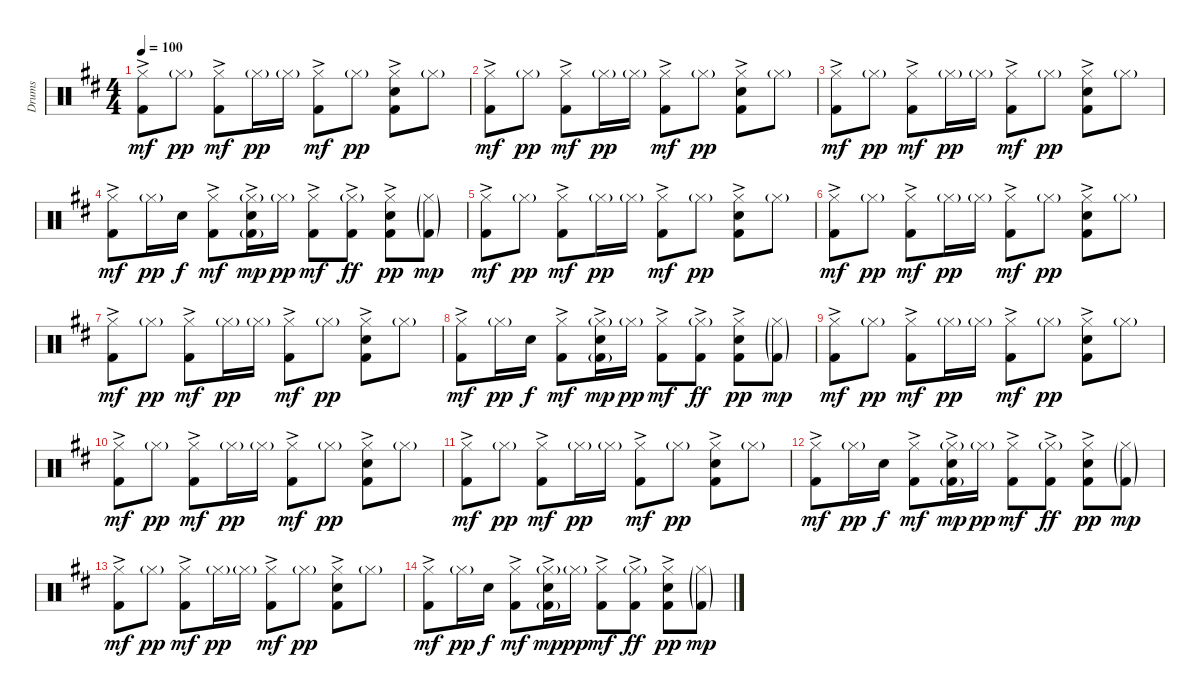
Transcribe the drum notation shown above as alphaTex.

\track ("Drums" "Drums") {instrument percussion}
\staff {score}
\articulation defaults
\ts (4 4)
\tempo 100
\clef neutral
\ks d
("Hi-Hat (closed)" "Kick (hit) 2"{ac}).8{dy mf} "Hi-Hat (closed)"{g}.8{dy pp} ("Hi-Hat (closed)"{ac} "Kick (hit) 2"{ac}).8{dy mf} "Hi-Hat (closed)"{g}.16{dy pp} "Hi-Hat (closed)"{g}.16 ("Hi-Hat (closed)" "Kick (hit) 2"{ac}).8{dy mf} "Hi-Hat (closed)"{g}.8{dy pp} ("Hi-Hat (closed)"{ac} "Snare (hit) 2"{ac} "Kick (hit) 2").8 "Hi-Hat (closed)"{g}.8 |
("Hi-Hat (closed)" "Kick (hit) 2"{ac}).8{dy mf} "Hi-Hat (closed)"{g}.8{dy pp} ("Hi-Hat (closed)"{ac} "Kick (hit) 2"{ac}).8{dy mf} "Hi-Hat (closed)"{g}.16{dy pp} "Hi-Hat (closed)"{g}.16 ("Hi-Hat (closed)" "Kick (hit) 2"{ac}).8{dy mf} "Hi-Hat (closed)"{g}.8{dy pp} ("Hi-Hat (closed)"{ac} "Snare (hit) 2"{ac} "Kick (hit) 2").8 "Hi-Hat (closed)"{g}.8 |
("Hi-Hat (closed)" "Kick (hit) 2"{ac}).8{dy mf} "Hi-Hat (closed)"{g}.8{dy pp} ("Hi-Hat (closed)"{ac} "Kick (hit) 2"{ac}).8{dy mf} "Hi-Hat (closed)"{g}.16{dy pp} "Hi-Hat (closed)"{g}.16 ("Hi-Hat (closed)" "Kick (hit) 2"{ac}).8{dy mf} "Hi-Hat (closed)"{g}.8{dy pp} ("Hi-Hat (closed)"{ac} "Snare (hit) 2"{ac} "Kick (hit) 2").8 "Hi-Hat (closed)"{g}.8 |
("Hi-Hat (closed)" "Kick (hit) 2"{ac}).8{dy mf} "Hi-Hat (closed)"{g}.16{dy pp} "Snare (hit) 2".16{dy f} ("Hi-Hat (closed)"{ac} "Kick (hit) 2"{ac}).8{dy mf} ("Hi-Hat (closed)"{g} "Snare (hit) 2"{ac} "Kick (hit) 2"{g}).16{dy mp} "Hi-Hat (closed)"{g}.16{dy pp} ("Hi-Hat (closed)" "Kick (hit) 2"{ac}).8{dy mf} ("Hi-Hat (closed)"{g} "Kick (hit) 2"{ac}).8{dy ff} ("Hi-Hat (closed)"{ac} "Snare (hit) 2"{ac} "Kick (hit) 2").8{dy pp} ("Hi-Hat (closed)"{g} "Kick (hit) 2"{g}).8{dy mp} |
("Hi-Hat (closed)" "Kick (hit) 2"{ac}).8{dy mf} "Hi-Hat (closed)"{g}.8{dy pp} ("Hi-Hat (closed)"{ac} "Kick (hit) 2"{ac}).8{dy mf} "Hi-Hat (closed)"{g}.16{dy pp} "Hi-Hat (closed)"{g}.16 ("Hi-Hat (closed)" "Kick (hit) 2"{ac}).8{dy mf} "Hi-Hat (closed)"{g}.8{dy pp} ("Hi-Hat (closed)"{ac} "Snare (hit) 2"{ac} "Kick (hit) 2").8 "Hi-Hat (closed)"{g}.8 |
("Hi-Hat (closed)" "Kick (hit) 2"{ac}).8{dy mf} "Hi-Hat (closed)"{g}.8{dy pp} ("Hi-Hat (closed)"{ac} "Kick (hit) 2"{ac}).8{dy mf} "Hi-Hat (closed)"{g}.16{dy pp} "Hi-Hat (closed)"{g}.16 ("Hi-Hat (closed)" "Kick (hit) 2"{ac}).8{dy mf} "Hi-Hat (closed)"{g}.8{dy pp} ("Hi-Hat (closed)"{ac} "Snare (hit) 2"{ac} "Kick (hit) 2").8 "Hi-Hat (closed)"{g}.8 |
("Hi-Hat (closed)" "Kick (hit) 2"{ac}).8{dy mf} "Hi-Hat (closed)"{g}.8{dy pp} ("Hi-Hat (closed)"{ac} "Kick (hit) 2"{ac}).8{dy mf} "Hi-Hat (closed)"{g}.16{dy pp} "Hi-Hat (closed)"{g}.16 ("Hi-Hat (closed)" "Kick (hit) 2"{ac}).8{dy mf} "Hi-Hat (closed)"{g}.8{dy pp} ("Hi-Hat (closed)"{ac} "Snare (hit) 2"{ac} "Kick (hit) 2").8 "Hi-Hat (closed)"{g}.8 |
("Hi-Hat (closed)" "Kick (hit) 2"{ac}).8{dy mf} "Hi-Hat (closed)"{g}.16{dy pp} "Snare (hit) 2".16{dy f} ("Hi-Hat (closed)"{ac} "Kick (hit) 2"{ac}).8{dy mf} ("Hi-Hat (closed)"{g} "Snare (hit) 2"{ac} "Kick (hit) 2"{g}).16{dy mp} "Hi-Hat (closed)"{g}.16{dy pp} ("Hi-Hat (closed)" "Kick (hit) 2"{ac}).8{dy mf} ("Hi-Hat (closed)"{g} "Kick (hit) 2"{ac}).8{dy ff} ("Hi-Hat (closed)"{ac} "Snare (hit) 2"{ac} "Kick (hit) 2").8{dy pp} ("Hi-Hat (closed)"{g} "Kick (hit) 2"{g}).8{dy mp} |
("Hi-Hat (closed)" "Kick (hit) 2"{ac}).8{dy mf} "Hi-Hat (closed)"{g}.8{dy pp} ("Hi-Hat (closed)"{ac} "Kick (hit) 2"{ac}).8{dy mf} "Hi-Hat (closed)"{g}.16{dy pp} "Hi-Hat (closed)"{g}.16 ("Hi-Hat (closed)" "Kick (hit) 2"{ac}).8{dy mf} "Hi-Hat (closed)"{g}.8{dy pp} ("Hi-Hat (closed)"{ac} "Snare (hit) 2"{ac} "Kick (hit) 2").8 "Hi-Hat (closed)"{g}.8 |
("Hi-Hat (closed)" "Kick (hit) 2"{ac}).8{dy mf} "Hi-Hat (closed)"{g}.8{dy pp} ("Hi-Hat (closed)"{ac} "Kick (hit) 2"{ac}).8{dy mf} "Hi-Hat (closed)"{g}.16{dy pp} "Hi-Hat (closed)"{g}.16 ("Hi-Hat (closed)" "Kick (hit) 2"{ac}).8{dy mf} "Hi-Hat (closed)"{g}.8{dy pp} ("Hi-Hat (closed)"{ac} "Snare (hit) 2"{ac} "Kick (hit) 2").8 "Hi-Hat (closed)"{g}.8 |
("Hi-Hat (closed)" "Kick (hit) 2"{ac}).8{dy mf} "Hi-Hat (closed)"{g}.8{dy pp} ("Hi-Hat (closed)"{ac} "Kick (hit) 2"{ac}).8{dy mf} "Hi-Hat (closed)"{g}.16{dy pp} "Hi-Hat (closed)"{g}.16 ("Hi-Hat (closed)" "Kick (hit) 2"{ac}).8{dy mf} "Hi-Hat (closed)"{g}.8{dy pp} ("Hi-Hat (closed)"{ac} "Snare (hit) 2"{ac} "Kick (hit) 2").8 "Hi-Hat (closed)"{g}.8 |
("Hi-Hat (closed)" "Kick (hit) 2"{ac}).8{dy mf} "Hi-Hat (closed)"{g}.16{dy pp} "Snare (hit) 2".16{dy f} ("Hi-Hat (closed)"{ac} "Kick (hit) 2"{ac}).8{dy mf} ("Hi-Hat (closed)"{g} "Snare (hit) 2"{ac} "Kick (hit) 2"{g}).16{dy mp} "Hi-Hat (closed)"{g}.16{dy pp} ("Hi-Hat (closed)" "Kick (hit) 2"{ac}).8{dy mf} ("Hi-Hat (closed)"{g} "Kick (hit) 2"{ac}).8{dy ff} ("Hi-Hat (closed)"{ac} "Snare (hit) 2"{ac} "Kick (hit) 2").8{dy pp} ("Hi-Hat (closed)"{g} "Kick (hit) 2"{g}).8{dy mp} |
("Hi-Hat (closed)" "Kick (hit) 2"{ac}).8{dy mf} "Hi-Hat (closed)"{g}.8{dy pp} ("Hi-Hat (closed)"{ac} "Kick (hit) 2"{ac}).8{dy mf} "Hi-Hat (closed)"{g}.16{dy pp} "Hi-Hat (closed)"{g}.16 ("Hi-Hat (closed)" "Kick (hit) 2"{ac}).8{dy mf} "Hi-Hat (closed)"{g}.8{dy pp} ("Hi-Hat (closed)"{ac} "Snare (hit) 2"{ac} "Kick (hit) 2").8 "Hi-Hat (closed)"{g}.8 |
("Hi-Hat (closed)" "Kick (hit) 2"{ac}).8{dy mf} "Hi-Hat (closed)"{g}.16{dy pp} "Snare (hit) 2".16{dy f} ("Hi-Hat (closed)"{ac} "Kick (hit) 2"{ac}).8{dy mf} ("Hi-Hat (closed)"{g} "Snare (hit) 2"{ac} "Kick (hit) 2"{g}).16{dy mp} "Hi-Hat (closed)"{g}.16{dy pp} ("Hi-Hat (closed)" "Kick (hit) 2"{ac}).8{dy mf} ("Hi-Hat (closed)"{g} "Kick (hit) 2"{ac}).8{dy ff} ("Hi-Hat (closed)"{ac} "Snare (hit) 2"{ac} "Kick (hit) 2").8{dy pp} ("Hi-Hat (closed)"{g} "Kick (hit) 2"{g}).8{dy mp}
